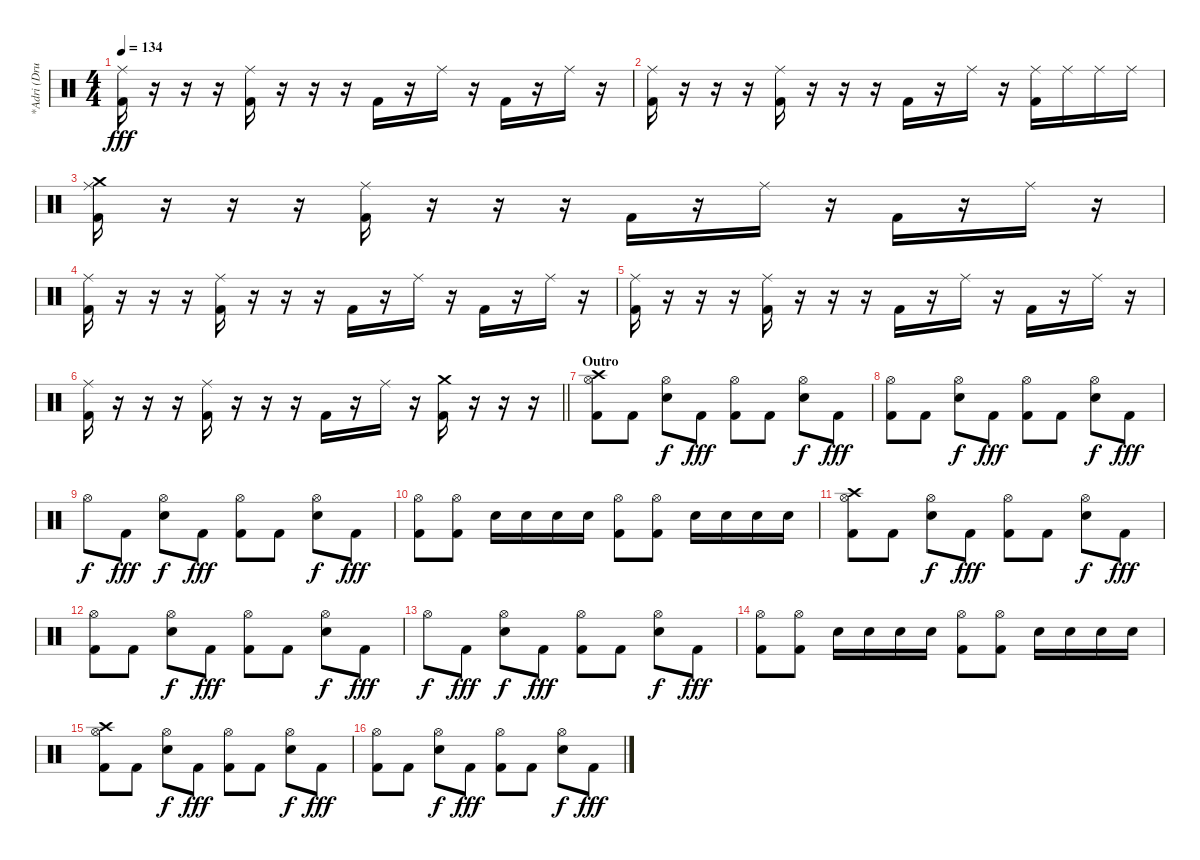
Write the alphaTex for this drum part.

\track ("*Adri (Drum)" "*Adri (Dru") {instrument percussion}
\staff {score}
\articulation defaults
\ts (4 4)
\tempo 134
\clef neutral
\ks c
("Ride (middle)" "Kick (hit) 2").16{dy fff} r.16 r.16 r.16 ("Ride (middle)" "Kick (hit) 2").16 r.16 r.16 r.16 "Kick (hit) 2".16 r.16 "Ride (middle)".16 r.16 "Kick (hit) 2".16 r.16 "Ride (middle)".16 r.16 |
("Ride (middle)" "Kick (hit) 2").16 r.16 r.16 r.16 ("Ride (middle)" "Kick (hit) 2").16 r.16 r.16 r.16 "Kick (hit) 2".16 r.16 "Ride (middle)".16 r.16 ("Ride (middle)" "Kick (hit) 2").16 "Ride (middle)".16 "Ride (middle)".16 "Ride (middle)".16 |
("Crash medium (hit)" "Ride (middle)" "Kick (hit) 2").16 r.16 r.16 r.16 ("Ride (middle)" "Kick (hit) 2").16 r.16 r.16 r.16 "Kick (hit) 2".16 r.16 "Ride (middle)".16 r.16 "Kick (hit) 2".16 r.16 "Ride (middle)".16 r.16 |
("Ride (middle)" "Kick (hit) 2").16 r.16 r.16 r.16 ("Ride (middle)" "Kick (hit) 2").16 r.16 r.16 r.16 "Kick (hit) 2".16 r.16 "Ride (middle)".16 r.16 "Kick (hit) 2".16 r.16 "Ride (middle)".16 r.16 |
("Ride (middle)" "Kick (hit) 2").16 r.16 r.16 r.16 ("Ride (middle)" "Kick (hit) 2").16 r.16 r.16 r.16 "Kick (hit) 2".16 r.16 "Ride (middle)".16 r.16 "Kick (hit) 2".16 r.16 "Ride (middle)".16 r.16 |
\barLineRight lightlight
("Ride (middle)" "Kick (hit) 2").16 r.16 r.16 r.16 ("Ride (middle)" "Kick (hit) 2").16 r.16 r.16 r.16 "Kick (hit) 2".16 r.16 "Ride (middle)".16 r.16 ("Crash medium (hit)" "Kick (hit) 2").16 r.16 r.16 r.16 |
\section ("" "Outro")
("Crash high (hit)" "Hi-Hat (open)" "Kick (hit) 2").8 "Kick (hit) 2".8 ("Hi-Hat (open)" "Snare (hit) 2").8{dy f} "Kick (hit) 2".8{dy fff} ("Hi-Hat (open)" "Kick (hit) 2").8 "Kick (hit) 2".8 ("Hi-Hat (open)" "Snare (hit) 2").8{dy f} "Kick (hit) 2".8{dy fff} |
("Hi-Hat (open)" "Kick (hit) 2").8 "Kick (hit) 2".8 ("Hi-Hat (open)" "Snare (hit) 2").8{dy f} "Kick (hit) 2".8{dy fff} ("Hi-Hat (open)" "Kick (hit) 2").8 "Kick (hit) 2".8 ("Hi-Hat (open)" "Snare (hit) 2").8{dy f} "Kick (hit) 2".8{dy fff} |
"Hi-Hat (open)".8{dy f} "Kick (hit) 2".8{dy fff} ("Hi-Hat (open)" "Snare (hit) 2").8{dy f} "Kick (hit) 2".8{dy fff} ("Hi-Hat (open)" "Kick (hit) 2").8 "Kick (hit) 2".8 ("Hi-Hat (open)" "Snare (hit) 2").8{dy f} "Kick (hit) 2".8{dy fff} |
("Hi-Hat (open)" "Kick (hit) 2").8 ("Hi-Hat (open)" "Kick (hit) 2").8 "Snare (hit) 2".16 "Snare (hit) 2".16 "Snare (hit) 2".16 "Snare (hit) 2".16 ("Hi-Hat (open)" "Kick (hit) 2").8 ("Hi-Hat (open)" "Kick (hit) 2").8 "Snare (hit) 2".16 "Snare (hit) 2".16 "Snare (hit) 2".16 "Snare (hit) 2".16 |
("Crash high (hit)" "Hi-Hat (open)" "Kick (hit) 2").8 "Kick (hit) 2".8 ("Hi-Hat (open)" "Snare (hit) 2").8{dy f} "Kick (hit) 2".8{dy fff} ("Hi-Hat (open)" "Kick (hit) 2").8 "Kick (hit) 2".8 ("Hi-Hat (open)" "Snare (hit) 2").8{dy f} "Kick (hit) 2".8{dy fff} |
("Hi-Hat (open)" "Kick (hit) 2").8 "Kick (hit) 2".8 ("Hi-Hat (open)" "Snare (hit) 2").8{dy f} "Kick (hit) 2".8{dy fff} ("Hi-Hat (open)" "Kick (hit) 2").8 "Kick (hit) 2".8 ("Hi-Hat (open)" "Snare (hit) 2").8{dy f} "Kick (hit) 2".8{dy fff} |
"Hi-Hat (open)".8{dy f} "Kick (hit) 2".8{dy fff} ("Hi-Hat (open)" "Snare (hit) 2").8{dy f} "Kick (hit) 2".8{dy fff} ("Hi-Hat (open)" "Kick (hit) 2").8 "Kick (hit) 2".8 ("Hi-Hat (open)" "Snare (hit) 2").8{dy f} "Kick (hit) 2".8{dy fff} |
("Hi-Hat (open)" "Kick (hit) 2").8 ("Hi-Hat (open)" "Kick (hit) 2").8 "Snare (hit) 2".16 "Snare (hit) 2".16 "Snare (hit) 2".16 "Snare (hit) 2".16 ("Hi-Hat (open)" "Kick (hit) 2").8 ("Hi-Hat (open)" "Kick (hit) 2").8 "Snare (hit) 2".16 "Snare (hit) 2".16 "Snare (hit) 2".16 "Snare (hit) 2".16 |
("Crash high (hit)" "Hi-Hat (open)" "Kick (hit) 2").8 "Kick (hit) 2".8 ("Hi-Hat (open)" "Snare (hit) 2").8{dy f} "Kick (hit) 2".8{dy fff} ("Hi-Hat (open)" "Kick (hit) 2").8 "Kick (hit) 2".8 ("Hi-Hat (open)" "Snare (hit) 2").8{dy f} "Kick (hit) 2".8{dy fff} |
("Hi-Hat (open)" "Kick (hit) 2").8 "Kick (hit) 2".8 ("Hi-Hat (open)" "Snare (hit) 2").8{dy f} "Kick (hit) 2".8{dy fff} ("Hi-Hat (open)" "Kick (hit) 2").8 "Kick (hit) 2".8 ("Hi-Hat (open)" "Snare (hit) 2").8{dy f} "Kick (hit) 2".8{dy fff}
